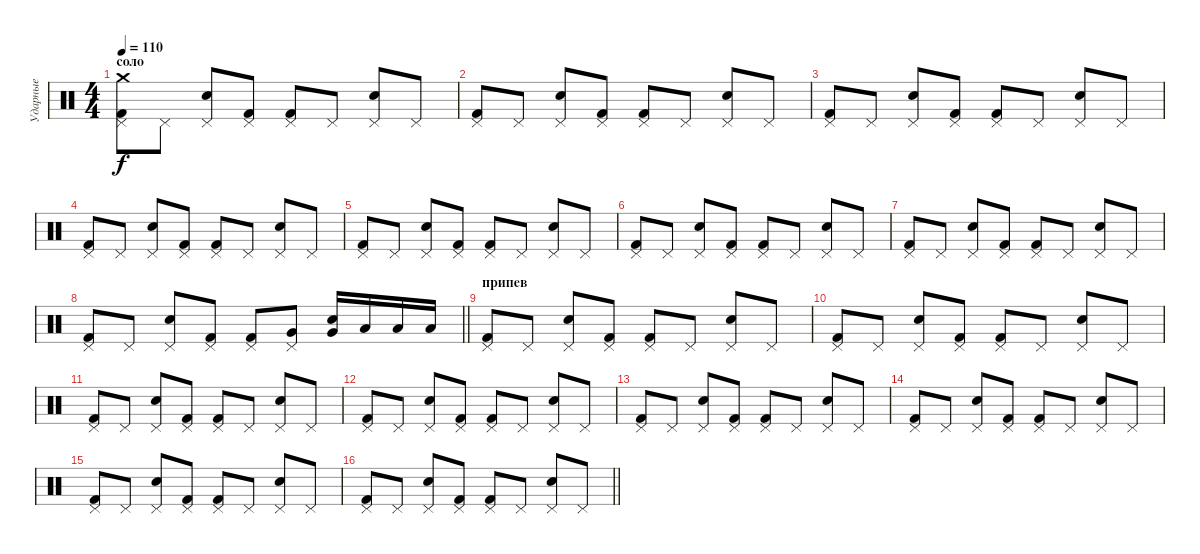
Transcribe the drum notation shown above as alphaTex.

\track ("Ударные" "Ударные") {instrument percussion}
\staff {score}
\articulation defaults
\ts (4 4)
\section ("" "соло")
\tempo 110
\clef neutral
\ks c
("Crash medium (hit)" "Pedal Hi-Hat (hit)" "Kick (hit) 2").8{dy f} "Pedal Hi-Hat (hit)".8 ("Pedal Hi-Hat (hit)" "Electric Snare (hit)").8 ("Pedal Hi-Hat (hit)" "Kick (hit) 2").8 ("Pedal Hi-Hat (hit)" "Kick (hit) 2").8 "Pedal Hi-Hat (hit)".8 ("Pedal Hi-Hat (hit)" "Electric Snare (hit)").8 "Pedal Hi-Hat (hit)".8 |
("Pedal Hi-Hat (hit)" "Kick (hit) 2").8 "Pedal Hi-Hat (hit)".8 ("Pedal Hi-Hat (hit)" "Electric Snare (hit)").8 ("Pedal Hi-Hat (hit)" "Kick (hit) 2").8 ("Pedal Hi-Hat (hit)" "Kick (hit) 2").8 "Pedal Hi-Hat (hit)".8 ("Pedal Hi-Hat (hit)" "Electric Snare (hit)").8 "Pedal Hi-Hat (hit)".8 |
("Pedal Hi-Hat (hit)" "Kick (hit) 2").8 "Pedal Hi-Hat (hit)".8 ("Pedal Hi-Hat (hit)" "Electric Snare (hit)").8 ("Pedal Hi-Hat (hit)" "Kick (hit) 2").8 ("Pedal Hi-Hat (hit)" "Kick (hit) 2").8 "Pedal Hi-Hat (hit)".8 ("Pedal Hi-Hat (hit)" "Electric Snare (hit)").8 "Pedal Hi-Hat (hit)".8 |
("Pedal Hi-Hat (hit)" "Kick (hit) 2").8 "Pedal Hi-Hat (hit)".8 ("Pedal Hi-Hat (hit)" "Electric Snare (hit)").8 ("Pedal Hi-Hat (hit)" "Kick (hit) 2").8 ("Pedal Hi-Hat (hit)" "Kick (hit) 2").8 "Pedal Hi-Hat (hit)".8 ("Pedal Hi-Hat (hit)" "Electric Snare (hit)").8 "Pedal Hi-Hat (hit)".8 |
("Pedal Hi-Hat (hit)" "Kick (hit) 2").8 "Pedal Hi-Hat (hit)".8 ("Pedal Hi-Hat (hit)" "Electric Snare (hit)").8 ("Pedal Hi-Hat (hit)" "Kick (hit) 2").8 ("Pedal Hi-Hat (hit)" "Kick (hit) 2").8 "Pedal Hi-Hat (hit)".8 ("Pedal Hi-Hat (hit)" "Electric Snare (hit)").8 "Pedal Hi-Hat (hit)".8 |
("Pedal Hi-Hat (hit)" "Kick (hit) 2").8 "Pedal Hi-Hat (hit)".8 ("Pedal Hi-Hat (hit)" "Electric Snare (hit)").8 ("Pedal Hi-Hat (hit)" "Kick (hit) 2").8 ("Pedal Hi-Hat (hit)" "Kick (hit) 2").8 "Pedal Hi-Hat (hit)".8 ("Pedal Hi-Hat (hit)" "Electric Snare (hit)").8 "Pedal Hi-Hat (hit)".8 |
("Pedal Hi-Hat (hit)" "Kick (hit) 2").8 "Pedal Hi-Hat (hit)".8 ("Pedal Hi-Hat (hit)" "Electric Snare (hit)").8 ("Pedal Hi-Hat (hit)" "Kick (hit) 2").8 ("Pedal Hi-Hat (hit)" "Kick (hit) 2").8 "Pedal Hi-Hat (hit)".8 ("Pedal Hi-Hat (hit)" "Electric Snare (hit)").8 "Pedal Hi-Hat (hit)".8 |
\barLineRight lightlight
("Pedal Hi-Hat (hit)" "Kick (hit) 2").8 "Pedal Hi-Hat (hit)".8 ("Pedal Hi-Hat (hit)" "Electric Snare (hit)").8 ("Pedal Hi-Hat (hit)" "Kick (hit) 2").8 ("Pedal Hi-Hat (hit)" "Kick (hit) 2").8 ("Pedal Hi-Hat (hit)" "Very Low Tom (hit)").8 ("Very Low Tom (hit)" "Electric Snare (hit)").16 "Low Floor Tom (hit)".16 "Low Floor Tom (hit)".16 "Low Floor Tom (hit)".16 |
\section ("" "припев")
("Pedal Hi-Hat (hit)" "Kick (hit) 2").8 "Pedal Hi-Hat (hit)".8 ("Pedal Hi-Hat (hit)" "Electric Snare (hit)").8 ("Pedal Hi-Hat (hit)" "Kick (hit) 2").8 ("Pedal Hi-Hat (hit)" "Kick (hit) 2").8 "Pedal Hi-Hat (hit)".8 ("Pedal Hi-Hat (hit)" "Electric Snare (hit)").8 "Pedal Hi-Hat (hit)".8 |
("Pedal Hi-Hat (hit)" "Kick (hit) 2").8 "Pedal Hi-Hat (hit)".8 ("Pedal Hi-Hat (hit)" "Electric Snare (hit)").8 ("Pedal Hi-Hat (hit)" "Kick (hit) 2").8 ("Pedal Hi-Hat (hit)" "Kick (hit) 2").8 "Pedal Hi-Hat (hit)".8 ("Pedal Hi-Hat (hit)" "Electric Snare (hit)").8 "Pedal Hi-Hat (hit)".8 |
("Pedal Hi-Hat (hit)" "Kick (hit) 2").8 "Pedal Hi-Hat (hit)".8 ("Pedal Hi-Hat (hit)" "Electric Snare (hit)").8 ("Pedal Hi-Hat (hit)" "Kick (hit) 2").8 ("Pedal Hi-Hat (hit)" "Kick (hit) 2").8 "Pedal Hi-Hat (hit)".8 ("Pedal Hi-Hat (hit)" "Electric Snare (hit)").8 "Pedal Hi-Hat (hit)".8 |
("Pedal Hi-Hat (hit)" "Kick (hit) 2").8 "Pedal Hi-Hat (hit)".8 ("Pedal Hi-Hat (hit)" "Electric Snare (hit)").8 ("Pedal Hi-Hat (hit)" "Kick (hit) 2").8 ("Pedal Hi-Hat (hit)" "Kick (hit) 2").8 "Pedal Hi-Hat (hit)".8 ("Pedal Hi-Hat (hit)" "Electric Snare (hit)").8 "Pedal Hi-Hat (hit)".8 |
("Pedal Hi-Hat (hit)" "Kick (hit) 2").8 "Pedal Hi-Hat (hit)".8 ("Pedal Hi-Hat (hit)" "Electric Snare (hit)").8 ("Pedal Hi-Hat (hit)" "Kick (hit) 2").8 ("Pedal Hi-Hat (hit)" "Kick (hit) 2").8 "Pedal Hi-Hat (hit)".8 ("Pedal Hi-Hat (hit)" "Electric Snare (hit)").8 "Pedal Hi-Hat (hit)".8 |
("Pedal Hi-Hat (hit)" "Kick (hit) 2").8 "Pedal Hi-Hat (hit)".8 ("Pedal Hi-Hat (hit)" "Electric Snare (hit)").8 ("Pedal Hi-Hat (hit)" "Kick (hit) 2").8 ("Pedal Hi-Hat (hit)" "Kick (hit) 2").8 "Pedal Hi-Hat (hit)".8 ("Pedal Hi-Hat (hit)" "Electric Snare (hit)").8 "Pedal Hi-Hat (hit)".8 |
("Pedal Hi-Hat (hit)" "Kick (hit) 2").8 "Pedal Hi-Hat (hit)".8 ("Pedal Hi-Hat (hit)" "Electric Snare (hit)").8 ("Pedal Hi-Hat (hit)" "Kick (hit) 2").8 ("Pedal Hi-Hat (hit)" "Kick (hit) 2").8 "Pedal Hi-Hat (hit)".8 ("Pedal Hi-Hat (hit)" "Electric Snare (hit)").8 "Pedal Hi-Hat (hit)".8 |
\barLineRight lightlight
("Pedal Hi-Hat (hit)" "Kick (hit) 2").8 "Pedal Hi-Hat (hit)".8 ("Pedal Hi-Hat (hit)" "Electric Snare (hit)").8 ("Pedal Hi-Hat (hit)" "Kick (hit) 2").8 ("Pedal Hi-Hat (hit)" "Kick (hit) 2").8 "Pedal Hi-Hat (hit)".8 ("Pedal Hi-Hat (hit)" "Electric Snare (hit)").8 "Pedal Hi-Hat (hit)".8
